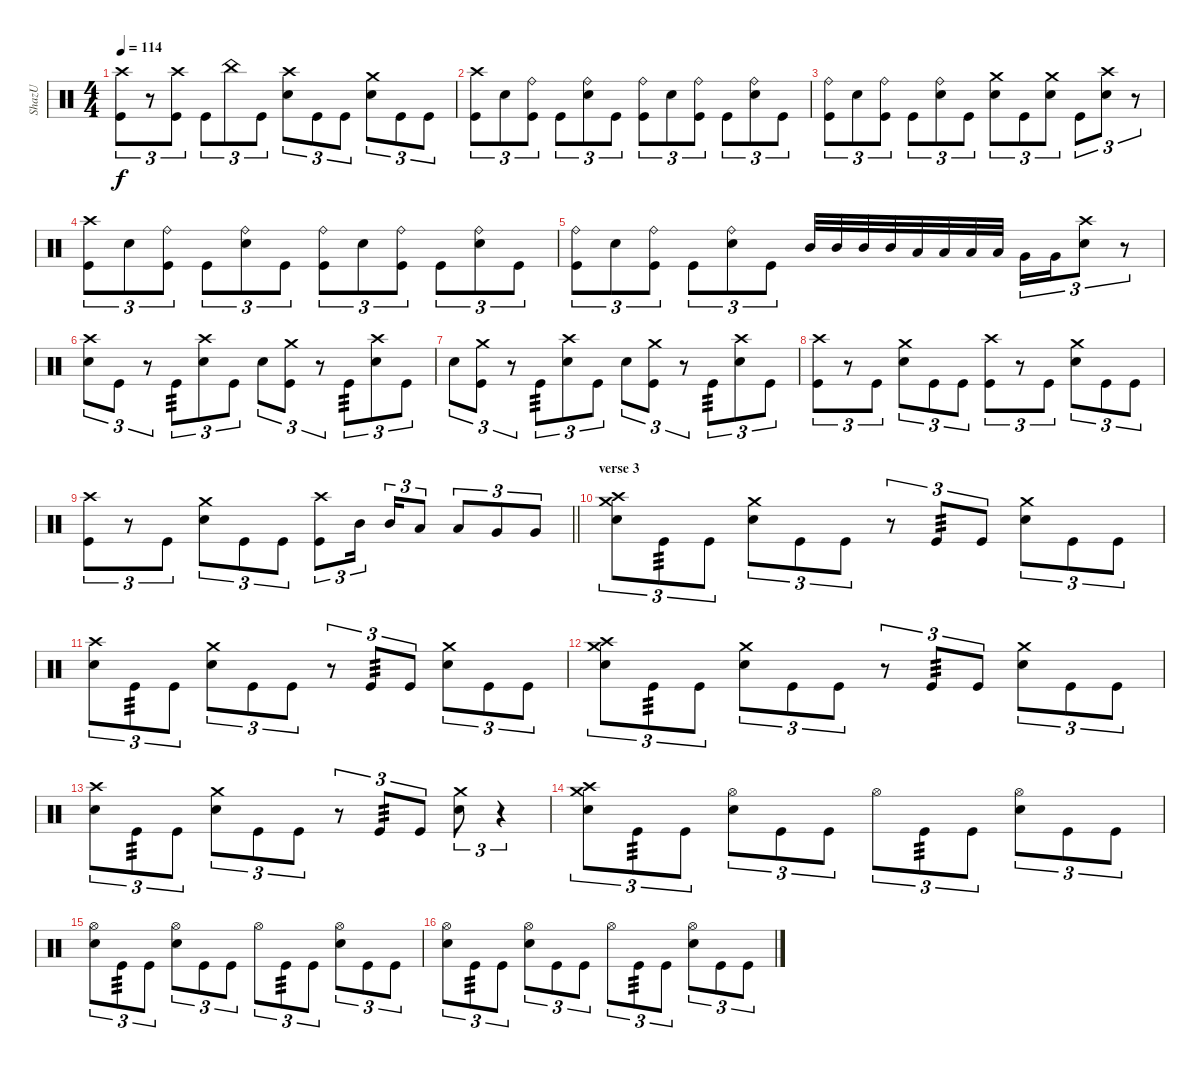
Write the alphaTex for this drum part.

\track ("ShazU" "ShazU") {instrument percussion}
\staff {score}
\articulation defaults
\ts (4 4)
\tempo 114
\clef neutral
\ks c
("Kick (hit)" "Crash high (hit)").8{tu (3 2) dy f} r.8{tu (3 2)} ("Kick (hit)" "Crash high (hit)").8{tu (3 2)} "Kick (hit)".8{tu (3 2)} "China (hit)".8{tu (3 2)} "Kick (hit)".8{tu (3 2)} ("Snare (hit) 2" "Crash high (hit)").8{tu (3 2)} "Kick (hit)".8{tu (3 2)} "Kick (hit)".8{tu (3 2)} ("Snare (hit) 2" "Crash medium (hit)").8{tu (3 2)} "Kick (hit)".8{tu (3 2)} "Kick (hit)".8{tu (3 2)} |
("Kick (hit)" "Crash high (hit)").8{tu (3 2)} "Snare (hit) 2".8{tu (3 2)} ("Kick (hit)" "Ride (bell)").8{tu (3 2)} "Kick (hit)".8{tu (3 2)} ("Snare (hit) 2" "Ride (bell)").8{tu (3 2)} "Kick (hit)".8{tu (3 2)} ("Kick (hit)" "Ride (bell)").8{tu (3 2)} "Snare (hit) 2".8{tu (3 2)} ("Kick (hit)" "Ride (bell)").8{tu (3 2)} "Kick (hit)".8{tu (3 2)} ("Snare (hit) 2" "Ride (bell)").8{tu (3 2)} "Kick (hit)".8{tu (3 2)} |
("Kick (hit)" "Ride (bell)").8{tu (3 2)} "Snare (hit) 2".8{tu (3 2)} ("Kick (hit)" "Ride (bell)").8{tu (3 2)} "Kick (hit)".8{tu (3 2)} ("Snare (hit) 2" "Ride (bell)").8{tu (3 2)} "Kick (hit)".8{tu (3 2)} ("Snare (hit) 2" "Crash medium (hit)").8{tu (3 2)} "Kick (hit)".8{tu (3 2)} ("Snare (hit) 2" "Crash medium (hit)").8{tu (3 2)} "Kick (hit)".8{tu (3 2)} ("Snare (hit) 2" "Crash high (hit)").8{tu (3 2)} r.8{tu (3 2)} |
("Kick (hit)" "Crash high (hit)").8{tu (3 2)} "Snare (hit) 2".8{tu (3 2)} ("Kick (hit)" "Ride (bell)").8{tu (3 2)} "Kick (hit)".8{tu (3 2)} ("Snare (hit) 2" "Ride (bell)").8{tu (3 2)} "Kick (hit)".8{tu (3 2)} ("Kick (hit)" "Ride (bell)").8{tu (3 2)} "Snare (hit) 2".8{tu (3 2)} ("Kick (hit)" "Ride (bell)").8{tu (3 2)} "Kick (hit)".8{tu (3 2)} ("Snare (hit) 2" "Ride (bell)").8{tu (3 2)} "Kick (hit)".8{tu (3 2)} |
("Kick (hit)" "Ride (bell)").8{tu (3 2)} "Snare (hit) 2".8{tu (3 2)} ("Kick (hit)" "Ride (bell)").8{tu (3 2)} "Kick (hit)".8{tu (3 2)} ("Snare (hit) 2" "Ride (bell)").8{tu (3 2)} "Kick (hit)".8{tu (3 2)} "Mid Tom (hit)".32 "Mid Tom (hit)".32 "Mid Tom (hit)".32 "Mid Tom (hit)".32 "Low Tom (hit)".32 "Low Tom (hit)".32 "Low Tom (hit)".32 "Low Tom (hit)".32 "Very Low Tom (hit)".16{tu (3 2)} "Very Low Tom (hit)".16{tu (3 2)} ("Snare (hit) 2" "Crash high (hit)").8{tu (3 2)} r.8{tu (3 2)} |
("Snare (hit) 2" "Crash high (hit)").8{tu (3 2)} "Kick (hit)".8{tu (3 2)} r.8{tu (3 2)} "Kick (hit)".8{tu (3 2) tp 3} ("Snare (hit) 2" "Crash high (hit)").8{tu (3 2)} "Kick (hit)".8{tu (3 2)} "Snare (hit) 2".8{tu (3 2)} ("Kick (hit)" "Crash medium (hit)").8{tu (3 2)} r.8{tu (3 2)} "Kick (hit)".8{tu (3 2) tp 3} ("Snare (hit) 2" "Crash high (hit)").8{tu (3 2)} "Kick (hit)".8{tu (3 2)} |
"Snare (hit) 2".8{tu (3 2)} ("Kick (hit)" "Crash medium (hit)").8{tu (3 2)} r.8{tu (3 2)} "Kick (hit)".8{tu (3 2) tp 3} ("Snare (hit) 2" "Crash high (hit)").8{tu (3 2)} "Kick (hit)".8{tu (3 2)} "Snare (hit) 2".8{tu (3 2)} ("Kick (hit)" "Crash medium (hit)").8{tu (3 2)} r.8{tu (3 2)} "Kick (hit)".8{tu (3 2) tp 3} ("Snare (hit) 2" "Crash high (hit)").8{tu (3 2)} "Kick (hit)".8{tu (3 2)} |
("Kick (hit)" "Crash high (hit)").8{tu (3 2)} r.8{tu (3 2)} "Kick (hit)".8{tu (3 2)} ("Snare (hit) 2" "Crash medium (hit)").8{tu (3 2)} "Kick (hit)".8{tu (3 2)} "Kick (hit)".8{tu (3 2)} ("Kick (hit)" "Crash high (hit)").8{tu (3 2)} r.8{tu (3 2)} "Kick (hit)".8{tu (3 2)} ("Snare (hit) 2" "Crash medium (hit)").8{tu (3 2)} "Kick (hit)".8{tu (3 2)} "Kick (hit)".8{tu (3 2)} |
\barLineRight lightlight
("Kick (hit)" "Crash high (hit)").8{tu (3 2)} r.8{tu (3 2)} "Kick (hit)".8{tu (3 2)} ("Snare (hit) 2" "Crash medium (hit)").8{tu (3 2)} "Kick (hit)".8{tu (3 2)} "Kick (hit)".8{tu (3 2)} ("Kick (hit)" "Crash high (hit)").8{tu (3 2)} "Mid Tom (hit)".16{tu (3 2) beam splitsecondary} "Mid Tom (hit)".16{tu (3 2)} "Low Tom (hit)".8{tu (3 2)} "Low Tom (hit)".8{tu (3 2)} "Very Low Tom (hit)".8{tu (3 2)} "Very Low Tom (hit)".8{tu (3 2)} |
\section ("" "verse 3")
("Snare (hit) 2" "Crash medium (hit)" "Crash high (hit)").8{tu (3 2)} "Kick (hit)".8{tu (3 2) tp 3} "Kick (hit)".8{tu (3 2)} ("Snare (hit) 2" "Crash medium (hit)").8{tu (3 2)} "Kick (hit)".8{tu (3 2)} "Kick (hit)".8{tu (3 2)} r.8{tu (3 2)} "Kick (hit)".8{tu (3 2) tp 3} "Kick (hit)".8{tu (3 2)} ("Snare (hit) 2" "Crash medium (hit)").8{tu (3 2)} "Kick (hit)".8{tu (3 2)} "Kick (hit)".8{tu (3 2)} |
("Snare (hit) 2" "Crash high (hit)").8{tu (3 2)} "Kick (hit)".8{tu (3 2) tp 3} "Kick (hit)".8{tu (3 2)} ("Snare (hit) 2" "Crash medium (hit)").8{tu (3 2)} "Kick (hit)".8{tu (3 2)} "Kick (hit)".8{tu (3 2)} r.8{tu (3 2)} "Kick (hit)".8{tu (3 2) tp 3} "Kick (hit)".8{tu (3 2)} ("Snare (hit) 2" "Crash medium (hit)").8{tu (3 2)} "Kick (hit)".8{tu (3 2)} "Kick (hit)".8{tu (3 2)} |
("Snare (hit) 2" "Crash medium (hit)" "Crash high (hit)").8{tu (3 2)} "Kick (hit)".8{tu (3 2) tp 3} "Kick (hit)".8{tu (3 2)} ("Snare (hit) 2" "Crash medium (hit)").8{tu (3 2)} "Kick (hit)".8{tu (3 2)} "Kick (hit)".8{tu (3 2)} r.8{tu (3 2)} "Kick (hit)".8{tu (3 2) tp 3} "Kick (hit)".8{tu (3 2)} ("Snare (hit) 2" "Crash medium (hit)").8{tu (3 2)} "Kick (hit)".8{tu (3 2)} "Kick (hit)".8{tu (3 2)} |
("Snare (hit) 2" "Crash high (hit)").8{tu (3 2)} "Kick (hit)".8{tu (3 2) tp 3} "Kick (hit)".8{tu (3 2)} ("Snare (hit) 2" "Crash medium (hit)").8{tu (3 2)} "Kick (hit)".8{tu (3 2)} "Kick (hit)".8{tu (3 2)} r.8{tu (3 2)} "Kick (hit)".8{tu (3 2) tp 3} "Kick (hit)".8{tu (3 2)} ("Snare (hit) 2" "Crash medium (hit)").8{tu (3 2)} r.4{tu (3 2)} |
("Snare (hit) 2" "Crash medium (hit)" "Crash high (hit)").8{tu (3 2)} "Kick (hit)".8{tu (3 2) tp 3} "Kick (hit)".8{tu (3 2)} ("Snare (hit) 2" "Hi-Hat (open)").8{tu (3 2)} "Kick (hit)".8{tu (3 2)} "Kick (hit)".8{tu (3 2)} "Hi-Hat (open)".8{tu (3 2)} "Kick (hit)".8{tu (3 2) tp 3} "Kick (hit)".8{tu (3 2)} ("Snare (hit) 2" "Hi-Hat (open)").8{tu (3 2)} "Kick (hit)".8{tu (3 2)} "Kick (hit)".8{tu (3 2)} |
("Snare (hit) 2" "Hi-Hat (open)").8{tu (3 2)} "Kick (hit)".8{tu (3 2) tp 3} "Kick (hit)".8{tu (3 2)} ("Snare (hit) 2" "Hi-Hat (open)").8{tu (3 2)} "Kick (hit)".8{tu (3 2)} "Kick (hit)".8{tu (3 2)} "Hi-Hat (open)".8{tu (3 2)} "Kick (hit)".8{tu (3 2) tp 3} "Kick (hit)".8{tu (3 2)} ("Snare (hit) 2" "Hi-Hat (open)").8{tu (3 2)} "Kick (hit)".8{tu (3 2)} "Kick (hit)".8{tu (3 2)} |
("Snare (hit) 2" "Hi-Hat (open)").8{tu (3 2)} "Kick (hit)".8{tu (3 2) tp 3} "Kick (hit)".8{tu (3 2)} ("Snare (hit) 2" "Hi-Hat (open)").8{tu (3 2)} "Kick (hit)".8{tu (3 2)} "Kick (hit)".8{tu (3 2)} "Hi-Hat (open)".8{tu (3 2)} "Kick (hit)".8{tu (3 2) tp 3} "Kick (hit)".8{tu (3 2)} ("Snare (hit) 2" "Hi-Hat (open)").8{tu (3 2)} "Kick (hit)".8{tu (3 2)} "Kick (hit)".8{tu (3 2)}
